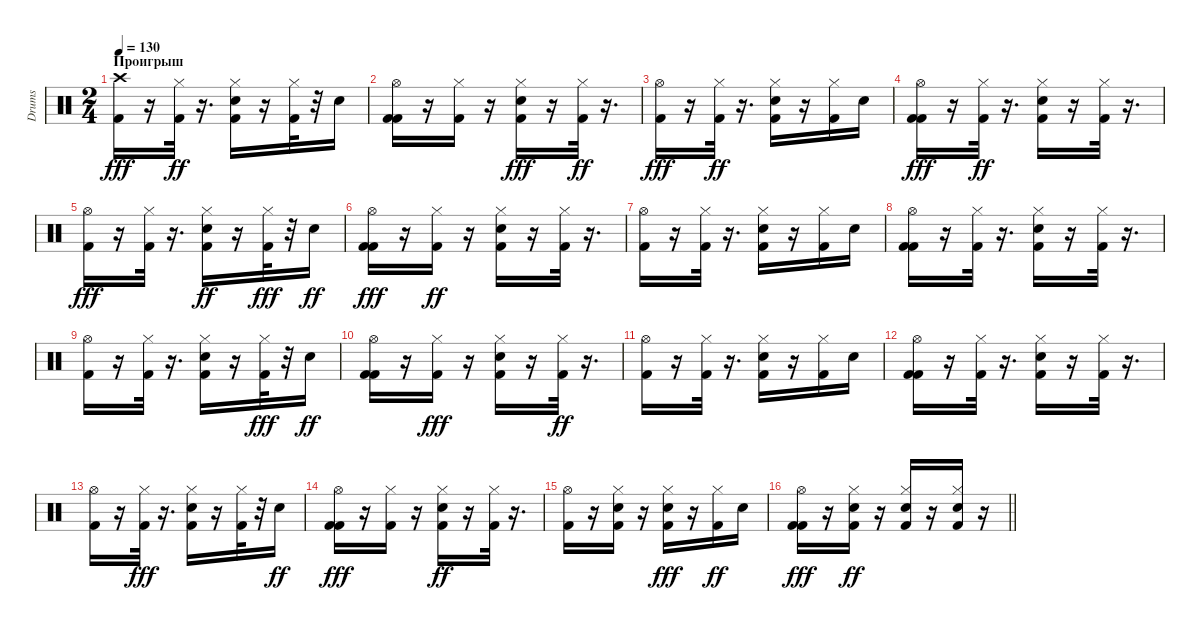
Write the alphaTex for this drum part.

\track ("Drums" "Drums") {solo instrument percussion}
\staff {score}
\articulation defaults
\ts (2 4)
\section ("" "Проигрыш")
\tempo 130
\clef neutral
\ks c
("Kick (hit) 2" "Crash high (hit)").16{dy fff} r.16 ("Hi-Hat (closed)" "Kick (hit) 2").32{dy ff} r.16{d} ("Hi-Hat (closed)" "Kick (hit) 2" "Snare (hit) 2").16 r.16 ("Hi-Hat (closed)" "Kick (hit) 2").32 r.32 "Snare (hit) 2".16 |
("Kick (hit) 2" "Hi-Hat (open)" "Kick (hit) 2").16 r.16 ("Hi-Hat (closed)" "Kick (hit) 2").16 r.16 ("Snare (hit) 2" "Kick (hit) 2" "Hi-Hat (closed)").16{dy fff} r.16 ("Hi-Hat (closed)" "Kick (hit) 2").32{dy ff} r.16{d} |
("Kick (hit) 2" "Hi-Hat (open)").16{dy fff} r.16 ("Hi-Hat (closed)" "Kick (hit) 2").32{dy ff} r.16{d} ("Kick (hit) 2" "Hi-Hat (closed)" "Snare (hit) 2").16 r.16 ("Hi-Hat (closed)" "Kick (hit) 2").16 "Snare (hit) 2".16 |
("Kick (hit) 2" "Kick (hit) 2" "Hi-Hat (open)").16{dy fff} r.16 ("Hi-Hat (closed)" "Kick (hit) 2").32{dy ff} r.16{d} ("Kick (hit) 2" "Hi-Hat (closed)" "Snare (hit) 2").16 r.16 ("Hi-Hat (closed)" "Kick (hit) 2").32 r.16{d} |
("Kick (hit) 2" "Hi-Hat (open)").16{dy fff} r.16 ("Kick (hit) 2" "Hi-Hat (closed)").32 r.16{d} ("Snare (hit) 2" "Hi-Hat (closed)" "Kick (hit) 2").16{dy ff} r.16 ("Kick (hit) 2" "Hi-Hat (closed)").32{dy fff} r.32 "Snare (hit) 2".16{dy ff} |
("Kick (hit) 2" "Kick (hit) 2" "Hi-Hat (open)").16{dy fff} r.16 ("Hi-Hat (closed)" "Kick (hit) 2").16{dy ff} r.16 ("Kick (hit) 2" "Hi-Hat (closed)" "Snare (hit) 2").16 r.16 ("Hi-Hat (closed)" "Kick (hit) 2").32 r.16{d} |
("Hi-Hat (open)" "Kick (hit) 2").16 r.16 ("Hi-Hat (closed)" "Kick (hit) 2").32 r.16{d} ("Kick (hit) 2" "Hi-Hat (closed)" "Snare (hit) 2").16 r.16 ("Hi-Hat (closed)" "Kick (hit) 2").16 "Snare (hit) 2".16 |
("Hi-Hat (open)" "Kick (hit) 2" "Kick (hit) 2").16 r.16 ("Hi-Hat (closed)" "Kick (hit) 2").32 r.16{d} ("Hi-Hat (closed)" "Snare (hit) 2" "Kick (hit) 2").16 r.16 ("Hi-Hat (closed)" "Kick (hit) 2").32 r.16{d} |
("Hi-Hat (open)" "Kick (hit) 2").16 r.16 ("Hi-Hat (closed)" "Kick (hit) 2").32 r.16{d} ("Snare (hit) 2" "Hi-Hat (closed)" "Kick (hit) 2").16 r.16 ("Kick (hit) 2" "Hi-Hat (closed)").32{dy fff} r.32 "Snare (hit) 2".16{dy ff} |
("Hi-Hat (open)" "Kick (hit) 2" "Kick (hit) 2").16 r.16 ("Kick (hit) 2" "Hi-Hat (closed)").16{dy fff} r.16 ("Kick (hit) 2" "Snare (hit) 2" "Hi-Hat (closed)").16 r.16 ("Hi-Hat (closed)" "Kick (hit) 2").32{dy ff} r.16{d} |
("Hi-Hat (open)" "Kick (hit) 2").16 r.16 ("Hi-Hat (closed)" "Kick (hit) 2").32 r.16{d} ("Snare (hit) 2" "Hi-Hat (closed)" "Kick (hit) 2").16 r.16 ("Hi-Hat (closed)" "Kick (hit) 2").16 "Snare (hit) 2".16 |
("Hi-Hat (open)" "Kick (hit) 2" "Kick (hit) 2").16 r.16 ("Hi-Hat (closed)" "Kick (hit) 2").32 r.16{d} ("Snare (hit) 2" "Hi-Hat (closed)" "Kick (hit) 2").16 r.16 ("Hi-Hat (closed)" "Kick (hit) 2").32 r.16{d} |
("Hi-Hat (open)" "Kick (hit) 2").16 r.16 ("Kick (hit) 2" "Hi-Hat (closed)").32{dy fff} r.16{d} ("Kick (hit) 2" "Snare (hit) 2" "Hi-Hat (closed)").16 r.16 ("Kick (hit) 2" "Hi-Hat (closed)").32 r.32 "Snare (hit) 2".16{dy ff} |
("Kick (hit) 2" "Kick (hit) 2" "Hi-Hat (open)").16{dy fff} r.16 ("Kick (hit) 2" "Hi-Hat (closed)").16 r.16 ("Hi-Hat (closed)" "Kick (hit) 2" "Snare (hit) 2").16{dy ff} r.16 ("Hi-Hat (closed)" "Kick (hit) 2").32 r.16{d} |
("Hi-Hat (open)" "Kick (hit) 2").16 r.16 ("Snare (hit) 2" "Hi-Hat (closed)" "Kick (hit) 2").16 r.16 ("Snare (hit) 2" "Kick (hit) 2" "Hi-Hat (closed)").16{dy fff} r.16 ("Hi-Hat (closed)" "Kick (hit) 2").16{dy ff} "Snare (hit) 2".16 |
\barLineRight lightlight
("Kick (hit) 2" "Kick (hit) 2" "Hi-Hat (open)").16{dy fff} r.16 ("Hi-Hat (closed)" "Kick (hit) 2" "Snare (hit) 2").16{dy ff} r.16 ("Snare (hit) 2" "Hi-Hat (closed)" "Kick (hit) 2").16 r.16 ("Kick (hit) 2" "Hi-Hat (closed)" "Snare (hit) 2").16 r.16
